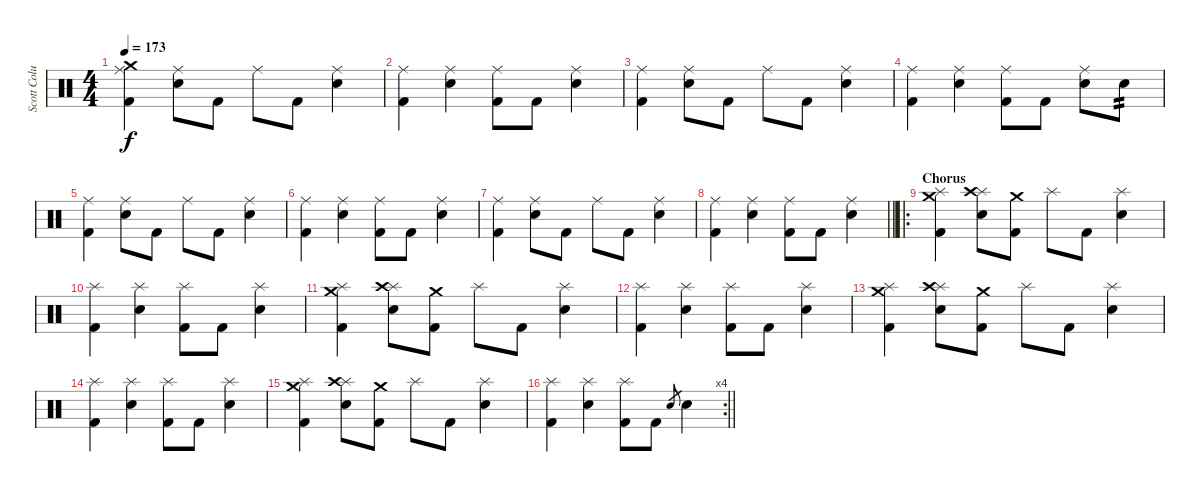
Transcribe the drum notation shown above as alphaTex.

\track ("Scott Columbus" "Scott Colu") {instrument percussion}
\staff {score}
\articulation defaults
\ts (4 4)
\tempo 173
\clef neutral
\ks c
("Kick (hit) 2" "Ride (middle)" "Crash medium (hit)").4{dy f} ("Snare (hit) 2" "Ride (middle)").8 "Kick (hit) 2".8 "Ride (middle)".8 "Kick (hit) 2".8 ("Snare (hit) 2" "Ride (middle)").4 |
("Kick (hit) 2" "Ride (middle)").4 ("Snare (hit) 2" "Ride (middle)").4 ("Kick (hit) 2" "Ride (middle)").8 "Kick (hit) 2".8 ("Snare (hit) 2" "Ride (middle)").4 |
("Kick (hit) 2" "Ride (middle)").4 ("Snare (hit) 2" "Ride (middle)").8 "Kick (hit) 2".8 "Ride (middle)".8 "Kick (hit) 2".8 ("Snare (hit) 2" "Ride (middle)").4 |
("Kick (hit) 2" "Ride (middle)").4 ("Snare (hit) 2" "Ride (middle)").4 ("Kick (hit) 2" "Ride (middle)").8 "Kick (hit) 2".8 ("Snare (hit) 2" "Ride (middle)").8 "Snare (hit) 2".8{tp 2} |
("Kick (hit) 2" "Ride (middle)").4 ("Snare (hit) 2" "Ride (middle)").8 "Kick (hit) 2".8 "Ride (middle)".8 "Kick (hit) 2".8 ("Snare (hit) 2" "Ride (middle)").4 |
("Kick (hit) 2" "Ride (middle)").4 ("Snare (hit) 2" "Ride (middle)").4 ("Kick (hit) 2" "Ride (middle)").8 "Kick (hit) 2".8 ("Snare (hit) 2" "Ride (middle)").4 |
("Kick (hit) 2" "Ride (middle)").4 ("Snare (hit) 2" "Ride (middle)").8 "Kick (hit) 2".8 "Ride (middle)".8 "Kick (hit) 2".8 ("Snare (hit) 2" "Ride (middle)").4 |
\barLineRight lightlight
("Kick (hit) 2" "Ride (middle)").4 ("Snare (hit) 2" "Ride (middle)").4 ("Kick (hit) 2" "Ride (middle)").8 "Kick (hit) 2".8 ("Snare (hit) 2" "Ride (middle)").4 |
\ro
\section ("" "Chorus")
("Kick (hit) 2" "Splash (hit)" "Crash medium (hit)").4 ("Snare (hit) 2" "Splash (hit)" "Crash high (hit)").8 ("Kick (hit) 2" "Crash medium (hit)").8 "Splash (hit)".8 "Kick (hit) 2".8 ("Snare (hit) 2" "Splash (hit)").4 |
("Kick (hit) 2" "Splash (hit)").4 ("Snare (hit) 2" "Splash (hit)").4 ("Kick (hit) 2" "Splash (hit)").8 "Kick (hit) 2".8 ("Snare (hit) 2" "Splash (hit)").4 |
("Kick (hit) 2" "Splash (hit)" "Crash medium (hit)").4 ("Snare (hit) 2" "Splash (hit)" "Crash high (hit)").8 ("Kick (hit) 2" "Crash medium (hit)").8 "Splash (hit)".8 "Kick (hit) 2".8 ("Snare (hit) 2" "Splash (hit)").4 |
("Kick (hit) 2" "Splash (hit)").4 ("Snare (hit) 2" "Splash (hit)").4 ("Kick (hit) 2" "Splash (hit)").8 "Kick (hit) 2".8 ("Snare (hit) 2" "Splash (hit)").4 |
("Kick (hit) 2" "Splash (hit)" "Crash medium (hit)").4 ("Snare (hit) 2" "Splash (hit)" "Crash high (hit)").8 ("Kick (hit) 2" "Crash medium (hit)").8 "Splash (hit)".8 "Kick (hit) 2".8 ("Snare (hit) 2" "Splash (hit)").4 |
("Kick (hit) 2" "Splash (hit)").4 ("Snare (hit) 2" "Splash (hit)").4 ("Kick (hit) 2" "Splash (hit)").8 "Kick (hit) 2".8 ("Snare (hit) 2" "Splash (hit)").4 |
("Kick (hit) 2" "Splash (hit)" "Crash medium (hit)").4 ("Snare (hit) 2" "Splash (hit)" "Crash high (hit)").8 ("Kick (hit) 2" "Crash medium (hit)").8 "Splash (hit)".8 "Kick (hit) 2".8 ("Snare (hit) 2" "Splash (hit)").4 |
\rc 4
\barLineRight lightlight
("Kick (hit) 2" "Splash (hit)").4 ("Snare (hit) 2" "Splash (hit)").4 ("Kick (hit) 2" "Splash (hit)").8 "Kick (hit) 2".8 "Snare (hit) 2".8{gr} "Snare (hit) 2".4
